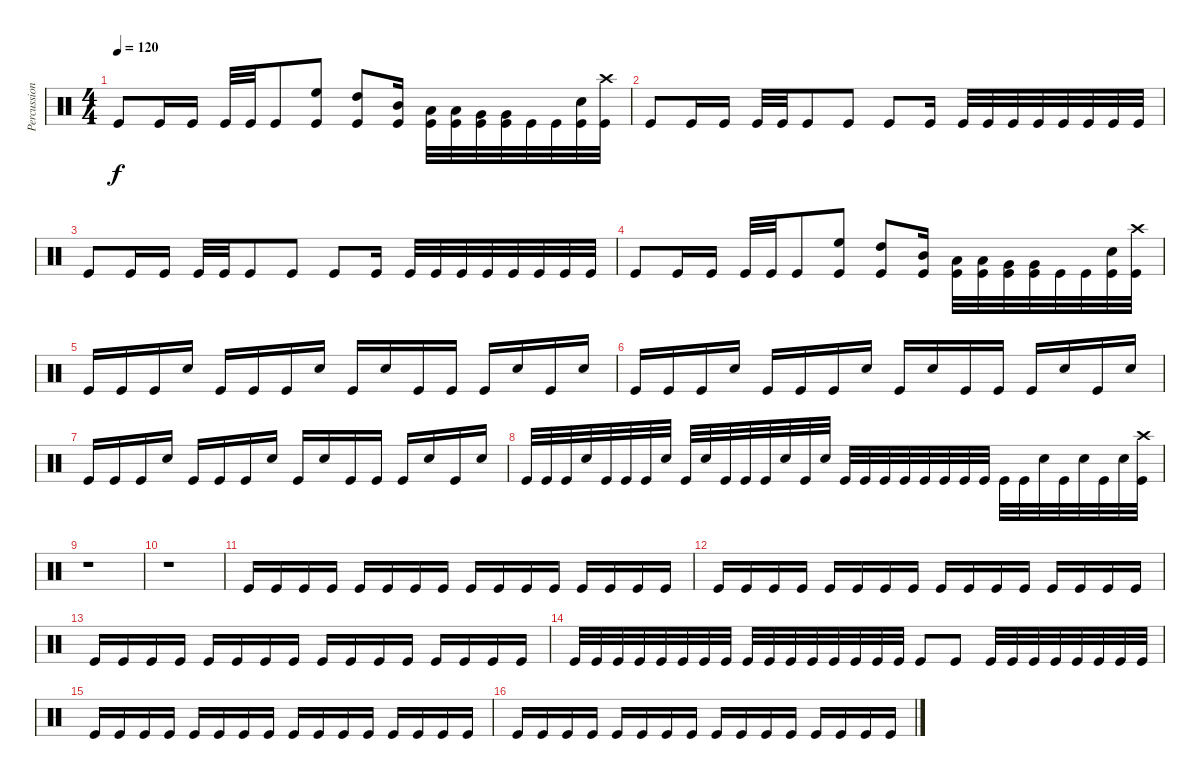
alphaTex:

\track ("Percussion" "Percussion") {instrument percussion}
\staff {score}
\articulation defaults
\ts (4 4)
\tempo 120
\clef neutral
\ks c "Kick (hit)".8{dy f} "Kick (hit)".16 "Kick (hit)".16 "Kick (hit)".32 "Kick (hit)".32 "Kick (hit)".8
("High Floor Tom (hit)" "Kick (hit)").8 ("High Tom (hit)" "Kick (hit)").8 ("Mid Tom (hit)" "Kick (hit)").16 ("Low Tom (hit)" "Kick (hit)").32 ("Low Tom (hit)" "Kick (hit)").32 ("Very Low Tom (hit)" "Kick (hit)").32 ("Very Low Tom (hit)" "Kick (hit)").32 "Kick (hit)".32 "Kick (hit)".32 ("Snare (hit) 2" "Kick (hit)").32 ("Crash high (hit)" "Kick (hit)").32 |
"Kick (hit)".8 "Kick (hit)".16 "Kick (hit)".16 "Kick (hit)".32 "Kick (hit)".32 "Kick (hit)".8 "Kick (hit)".8 "Kick (hit)".8 "Kick (hit)".16 "Kick (hit)".32 "Kick (hit)".32 "Kick (hit)".32 "Kick (hit)".32 "Kick (hit)".32 "Kick (hit)".32 "Kick (hit)".32 "Kick (hit)".32 |
"Kick (hit)".8 "Kick (hit)".16 "Kick (hit)".16 "Kick (hit)".32 "Kick (hit)".32 "Kick (hit)".8 "Kick (hit)".8 "Kick (hit)".8 "Kick (hit)".16 "Kick (hit)".32 "Kick (hit)".32 "Kick (hit)".32 "Kick (hit)".32 "Kick (hit)".32 "Kick (hit)".32 "Kick (hit)".32 "Kick (hit)".32 |
"Kick (hit)".8 "Kick (hit)".16 "Kick (hit)".16 "Kick (hit)".32 "Kick (hit)".32 "Kick (hit)".8 ("High Floor Tom (hit)" "Kick (hit)").8 ("High Tom (hit)" "Kick (hit)").8 ("Mid Tom (hit)" "Kick (hit)").16 ("Low Tom (hit)" "Kick (hit)").32 ("Low Tom (hit)" "Kick (hit)").32 ("Very Low Tom (hit)" "Kick (hit)").32 ("Very Low Tom (hit)" "Kick (hit)").32 "Kick (hit)".32 "Kick (hit)".32 ("Snare (hit) 2" "Kick (hit)").32 ("Crash high (hit)" "Kick (hit)").32 |
"Kick (hit)".16 "Kick (hit)".16 "Kick (hit)".16 "Snare (hit) 2".16 "Kick (hit)".16 "Kick (hit)".16 "Kick (hit)".16 "Snare (hit) 2".16 "Kick (hit)".16 "Snare (hit) 2".16 "Kick (hit)".16 "Kick (hit)".16 "Kick (hit)".16 "Snare (hit) 2".16 "Kick (hit)".16 "Snare (hit) 2".16 |
"Kick (hit)".16 "Kick (hit)".16 "Kick (hit)".16 "Snare (hit) 2".16 "Kick (hit)".16 "Kick (hit)".16 "Kick (hit)".16 "Snare (hit) 2".16 "Kick (hit)".16 "Snare (hit) 2".16 "Kick (hit)".16 "Kick (hit)".16 "Kick (hit)".16 "Snare (hit) 2".16 "Kick (hit)".16 "Snare (hit) 2".16 |
"Kick (hit)".16 "Kick (hit)".16 "Kick (hit)".16 "Snare (hit) 2".16 "Kick (hit)".16 "Kick (hit)".16 "Kick (hit)".16 "Snare (hit) 2".16 "Kick (hit)".16 "Snare (hit) 2".16 "Kick (hit)".16 "Kick (hit)".16 "Kick (hit)".16 "Snare (hit) 2".16 "Kick (hit)".16 "Snare (hit) 2".16 |
"Kick (hit)".32 "Kick (hit)".32 "Kick (hit)".32 "Snare (hit) 2".32 "Kick (hit)".32 "Kick (hit)".32 "Kick (hit)".32 "Snare (hit) 2".32 "Kick (hit)".32 "Snare (hit) 2".32 "Kick (hit)".32 "Kick (hit)".32 "Kick (hit)".32 "Snare (hit) 2".32 "Kick (hit)".32 "Snare (hit) 2".32 "Kick (hit)".32 "Kick (hit)".32 "Kick (hit)".32 "Kick (hit)".32 "Kick (hit)".32 "Kick (hit)".32 "Kick (hit)".32 "Kick (hit)".32 "Kick (hit)".32 "Kick (hit)".32 "Snare (hit) 2".32 "Kick (hit)".32 "Snare (hit) 2".32 "Kick (hit)".32 "Snare (hit) 2".32 ("Crash high (hit)" "Kick (hit)").32 |
r.1 |
r.1 |
"Kick (hit)".16 "Kick (hit)".16 "Kick (hit)".16 "Kick (hit)".16 "Kick (hit)".16 "Kick (hit)".16 "Kick (hit)".16 "Kick (hit)".16 "Kick (hit)".16 "Kick (hit)".16 "Kick (hit)".16 "Kick (hit)".16 "Kick (hit)".16 "Kick (hit)".16 "Kick (hit)".16 "Kick (hit)".16 |
"Kick (hit)".16 "Kick (hit)".16 "Kick (hit)".16 "Kick (hit)".16 "Kick (hit)".16 "Kick (hit)".16 "Kick (hit)".16 "Kick (hit)".16 "Kick (hit)".16 "Kick (hit)".16 "Kick (hit)".16 "Kick (hit)".16 "Kick (hit)".16 "Kick (hit)".16 "Kick (hit)".16 "Kick (hit)".16 |
"Kick (hit)".16 "Kick (hit)".16 "Kick (hit)".16 "Kick (hit)".16 "Kick (hit)".16 "Kick (hit)".16 "Kick (hit)".16 "Kick (hit)".16 "Kick (hit)".16 "Kick (hit)".16 "Kick (hit)".16 "Kick (hit)".16 "Kick (hit)".16 "Kick (hit)".16 "Kick (hit)".16 "Kick (hit)".16 |
"Kick (hit)".32 "Kick (hit)".32 "Kick (hit)".32 "Kick (hit)".32 "Kick (hit)".32 "Kick (hit)".32 "Kick (hit)".32 "Kick (hit)".32 "Kick (hit)".32 "Kick (hit)".32 "Kick (hit)".32 "Kick (hit)".32 "Kick (hit)".32 "Kick (hit)".32 "Kick (hit)".32 "Kick (hit)".32 "Kick (hit)".8 "Kick (hit)".8 "Kick (hit)".32 "Kick (hit)".32 "Kick (hit)".32 "Kick (hit)".32 "Kick (hit)".32 "Kick (hit)".32 "Kick (hit)".32 "Kick (hit)".32 |
"Kick (hit)".16 "Kick (hit)".16 "Kick (hit)".16 "Kick (hit)".16 "Kick (hit)".16 "Kick (hit)".16 "Kick (hit)".16 "Kick (hit)".16 "Kick (hit)".16 "Kick (hit)".16 "Kick (hit)".16 "Kick (hit)".16 "Kick (hit)".16 "Kick (hit)".16 "Kick (hit)".16 "Kick (hit)".16 |
"Kick (hit)".16 "Kick (hit)".16 "Kick (hit)".16 "Kick (hit)".16 "Kick (hit)".16 "Kick (hit)".16 "Kick (hit)".16 "Kick (hit)".16 "Kick (hit)".16 "Kick (hit)".16 "Kick (hit)".16 "Kick (hit)".16 "Kick (hit)".16 "Kick (hit)".16 "Kick (hit)".16 "Kick (hit)".16
